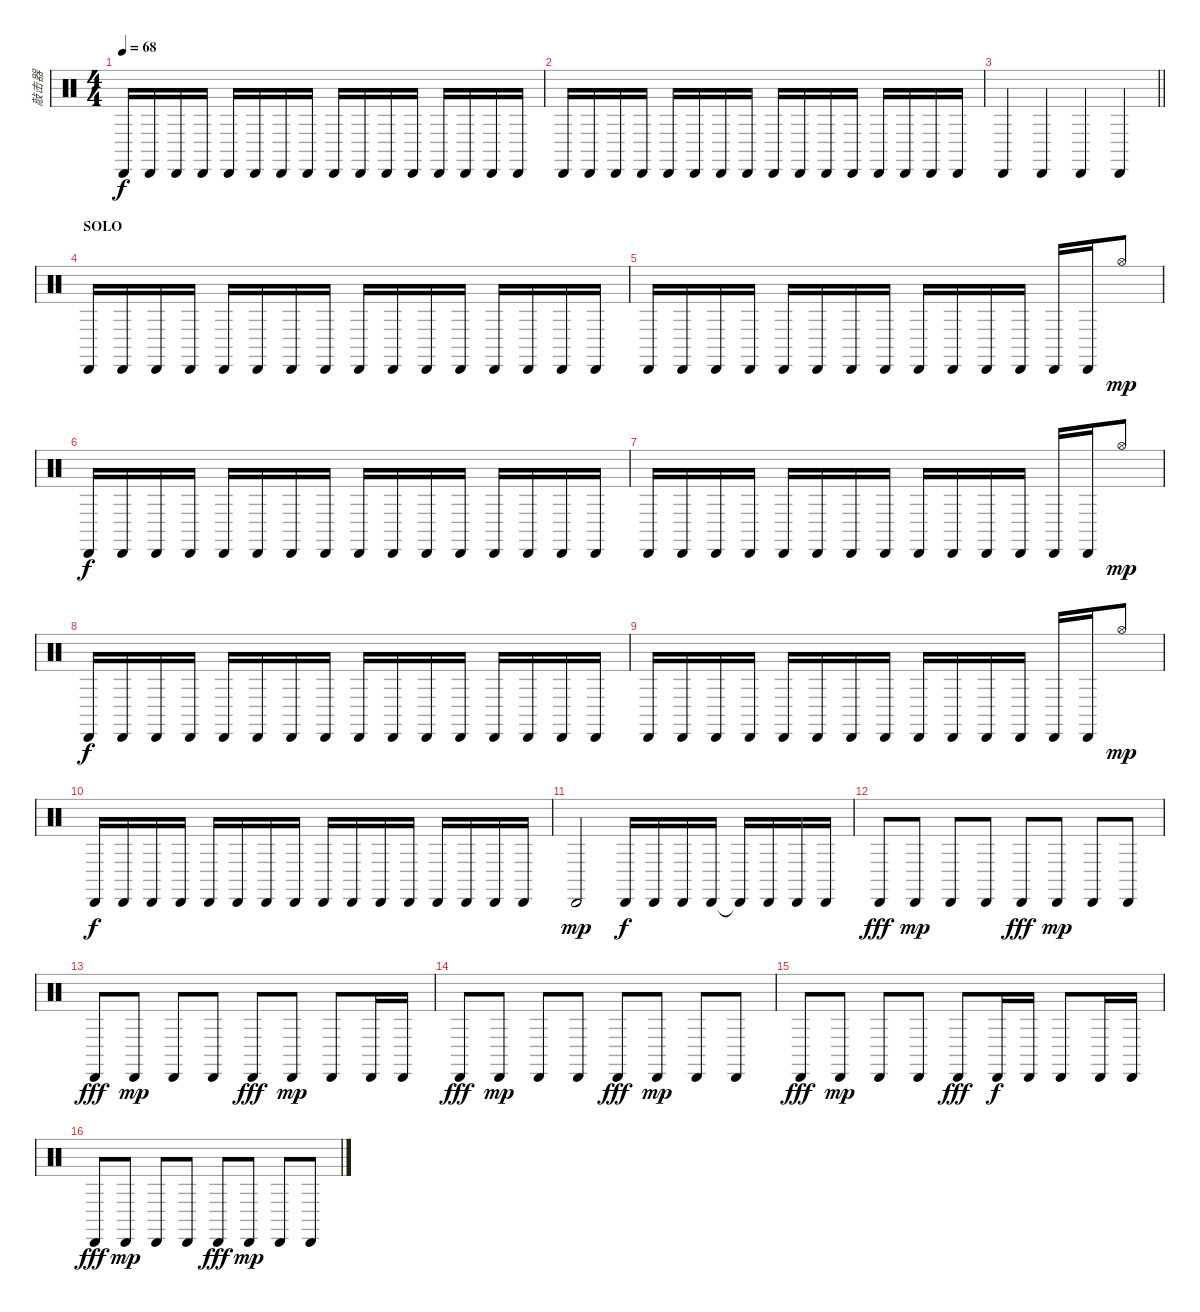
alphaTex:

\track ("敲击器" "敲击器") {instrument percussion}
\staff {score}
\articulation defaults
\ts (4 4)
\tempo 68
\clef neutral
\ks c "Cabasa (hit)".16{dy f} "Cabasa (hit)".16 "Cabasa (hit)".16 "Cabasa (hit)".16 "Cabasa (hit)".16 "Cabasa (hit)".16 "Cabasa (hit)".16 "Cabasa (hit)".16 "Cabasa (hit)".16 "Cabasa (hit)".16 "Cabasa (hit)".16 "Cabasa (hit)".16 "Cabasa (hit)".16 "Cabasa (hit)".16 "Cabasa (hit)".16 "Cabasa (hit)".16
|
"Cabasa (hit)".16 "Cabasa (hit)".16 "Cabasa (hit)".16 "Cabasa (hit)".16 "Cabasa (hit)".16 "Cabasa (hit)".16 "Cabasa (hit)".16 "Cabasa (hit)".16 "Cabasa (hit)".16 "Cabasa (hit)".16 "Cabasa (hit)".16 "Cabasa (hit)".16 "Cabasa (hit)".16 "Cabasa (hit)".16 "Cabasa (hit)".16 "Cabasa (hit)".16 |
\barLineRight lightlight "Cabasa (hit)".4 "Cabasa (hit)".4 "Cabasa (hit)".4 "Cabasa (hit)".4
|
\section ("" "SOLO")
"Cabasa (hit)".16 "Cabasa (hit)".16 "Cabasa (hit)".16 "Cabasa (hit)".16 "Cabasa (hit)".16 "Cabasa (hit)".16 "Cabasa (hit)".16 "Cabasa (hit)".16 "Cabasa (hit)".16 "Cabasa (hit)".16 "Cabasa (hit)".16 "Cabasa (hit)".16 "Cabasa (hit)".16 "Cabasa (hit)".16 "Cabasa (hit)".16 "Cabasa (hit)".16 |
"Cabasa (hit)".16 "Cabasa (hit)".16 "Cabasa (hit)".16 "Cabasa (hit)".16 "Cabasa (hit)".16 "Cabasa (hit)".16 "Cabasa (hit)".16 "Cabasa (hit)".16 "Cabasa (hit)".16 "Cabasa (hit)".16 "Cabasa (hit)".16 "Cabasa (hit)".16 "Cabasa (hit)".16 "Cabasa (hit)".16 "Hi-Hat (open)".8{dy mp} |
"Cabasa (hit)".16{dy f} "Cabasa (hit)".16 "Cabasa (hit)".16 "Cabasa (hit)".16 "Cabasa (hit)".16 "Cabasa (hit)".16 "Cabasa (hit)".16 "Cabasa (hit)".16 "Cabasa (hit)".16 "Cabasa (hit)".16 "Cabasa (hit)".16 "Cabasa (hit)".16 "Cabasa (hit)".16 "Cabasa (hit)".16 "Cabasa (hit)".16 "Cabasa (hit)".16 |
"Cabasa (hit)".16 "Cabasa (hit)".16 "Cabasa (hit)".16 "Cabasa (hit)".16 "Cabasa (hit)".16 "Cabasa (hit)".16 "Cabasa (hit)".16 "Cabasa (hit)".16 "Cabasa (hit)".16 "Cabasa (hit)".16 "Cabasa (hit)".16 "Cabasa (hit)".16 "Cabasa (hit)".16 "Cabasa (hit)".16 "Hi-Hat (open)".8{dy mp} |
"Cabasa (hit)".16{dy f} "Cabasa (hit)".16 "Cabasa (hit)".16 "Cabasa (hit)".16 "Cabasa (hit)".16 "Cabasa (hit)".16 "Cabasa (hit)".16 "Cabasa (hit)".16 "Cabasa (hit)".16 "Cabasa (hit)".16 "Cabasa (hit)".16 "Cabasa (hit)".16 "Cabasa (hit)".16 "Cabasa (hit)".16 "Cabasa (hit)".16 "Cabasa (hit)".16 |
"Cabasa (hit)".16 "Cabasa (hit)".16 "Cabasa (hit)".16 "Cabasa (hit)".16 "Cabasa (hit)".16 "Cabasa (hit)".16 "Cabasa (hit)".16 "Cabasa (hit)".16 "Cabasa (hit)".16 "Cabasa (hit)".16 "Cabasa (hit)".16 "Cabasa (hit)".16 "Cabasa (hit)".16 "Cabasa (hit)".16 "Hi-Hat (open)".8{dy mp} |
"Cabasa (hit)".16{dy f} "Cabasa (hit)".16 "Cabasa (hit)".16 "Cabasa (hit)".16 "Cabasa (hit)".16 "Cabasa (hit)".16 "Cabasa (hit)".16 "Cabasa (hit)".16 "Cabasa (hit)".16 "Cabasa (hit)".16 "Cabasa (hit)".16 "Cabasa (hit)".16 "Cabasa (hit)".16 "Cabasa (hit)".16 "Cabasa (hit)".16 "Cabasa (hit)".16 |
"Cabasa (hit)".2{dy mp} "Cabasa (hit)".16{dy f} "Cabasa (hit)".16 "Cabasa (hit)".16 "Cabasa (hit)".16 "Cabasa (hit)"{t}.16 "Cabasa (hit)".16 "Cabasa (hit)".16 "Cabasa (hit)".16 |
"Cabasa (hit)".8{dy fff volume 16} "Cabasa (hit)".8{dy mp} "Cabasa (hit)".8 "Cabasa (hit)".8 "Cabasa (hit)".8{dy fff} "Cabasa (hit)".8{dy mp} "Cabasa (hit)".8 "Cabasa (hit)".8 |
"Cabasa (hit)".8{dy fff} "Cabasa (hit)".8{dy mp} "Cabasa (hit)".8 "Cabasa (hit)".8 "Cabasa (hit)".8{dy fff} "Cabasa (hit)".8{dy mp} "Cabasa (hit)".8 "Cabasa (hit)".16 "Cabasa (hit)".16 |
"Cabasa (hit)".8{dy fff} "Cabasa (hit)".8{dy mp} "Cabasa (hit)".8 "Cabasa (hit)".8 "Cabasa (hit)".8{dy fff} "Cabasa (hit)".8{dy mp} "Cabasa (hit)".8 "Cabasa (hit)".8 |
"Cabasa (hit)".8{dy fff} "Cabasa (hit)".8{dy mp} "Cabasa (hit)".8 "Cabasa (hit)".8 "Cabasa (hit)".8{dy fff} "Cabasa (hit)".16{dy f} "Cabasa (hit)".16 "Cabasa (hit)".8 "Cabasa (hit)".16 "Cabasa (hit)".16 |
"Cabasa (hit)".8{dy fff} "Cabasa (hit)".8{dy mp} "Cabasa (hit)".8 "Cabasa (hit)".8 "Cabasa (hit)".8{dy fff} "Cabasa (hit)".8{dy mp} "Cabasa (hit)".8 "Cabasa (hit)".8
